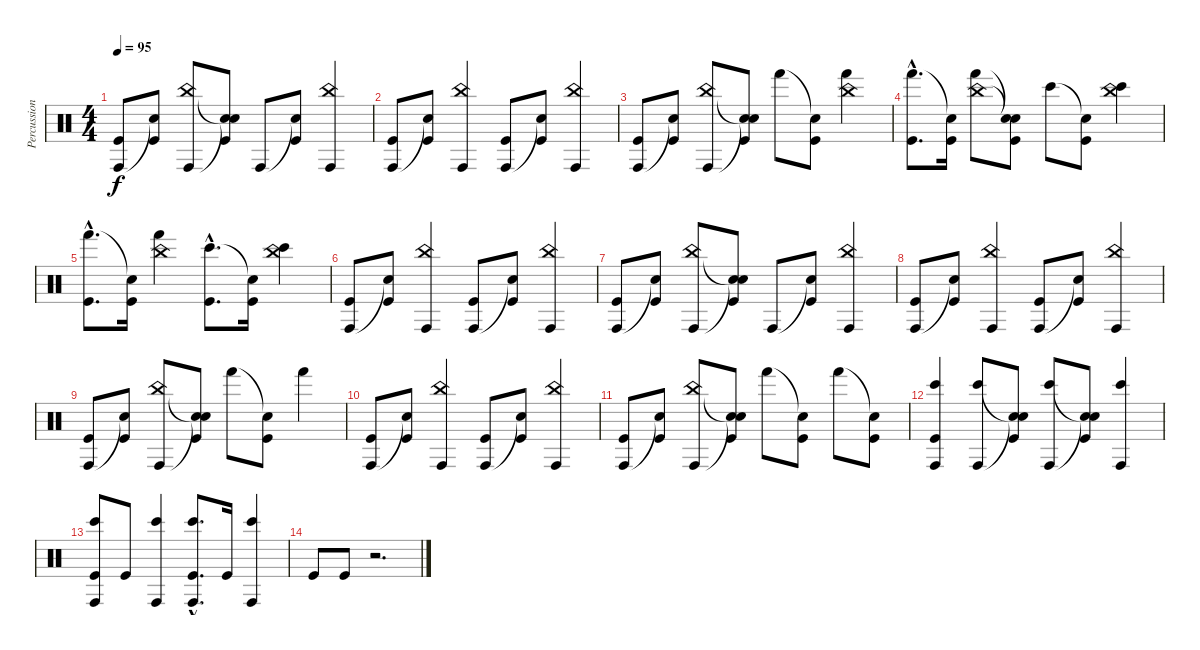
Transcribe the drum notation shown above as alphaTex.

\track ("Percussion" "Percussion") {instrument percussion}
\staff {score}
\articulation defaults
\ts (4 4)
\tempo 95
\clef neutral
\ks c
("Conga high (hit)" "Kick (hit)").8{dy f} ("Snare (hit)"{t} "Kick (hit)").8 ("China (hit)" "Conga high (hit)").8 ("Snare (hit)"{t} "Snare (hit)"{t} "Kick (hit)").8 "Conga high (hit)".8 ("Snare (hit)"{t} "Kick (hit)").8 ("China (hit)" "Conga high (hit)").4 |
("Conga high (hit)" "Kick (hit)").8 ("Snare (hit)"{t} "Kick (hit)").8 ("China (hit)" "Conga high (hit)").4 ("Conga high (hit)" "Kick (hit)").8 ("Snare (hit)"{t} "Kick (hit)").8 ("China (hit)" "Conga high (hit)").4 |
("Conga high (hit)" "Kick (hit)").8 ("Snare (hit)"{t} "Kick (hit)").8 ("China (hit)" "Conga high (hit)").8 ("Snare (hit)"{t} "Snare (hit)"{t} "Kick (hit)").8 "Hand (hit)".8 ("Snare (hit)"{t} "Kick (hit)").8 ("China (hit)" "Hand (hit)").4 |
("Hand (hit)"{hac} "Kick (hit)"{hac}).8{d} ("Snare (hit)"{t} "Kick (hit)").16 ("China (hit)" "Hand (hit)").8 ("Snare (hit)"{t} "Snare (hit)"{t} "Kick (hit)").8 "Bongo High (hit)".8 ("Snare (hit)"{t} "Kick (hit)").8 ("China (hit)" "Bongo High (hit)").4 |
("Hand (hit)"{hac} "Kick (hit)"{hac}).8{d} ("Snare (hit)"{t} "Kick (hit)").16 ("China (hit)" "Hand (hit)").4 ("Bongo High (hit)"{hac} "Kick (hit)"{hac}).8{d} ("Snare (hit)"{t} "Kick (hit)").16 ("China (hit)" "Bongo High (hit)").4 |
("Conga high (hit)" "Kick (hit)").8 ("Snare (hit)"{t} "Kick (hit)").8 ("China (hit)" "Conga high (hit)").4 ("Conga high (hit)" "Kick (hit)").8 ("Snare (hit)"{t} "Kick (hit)").8 ("China (hit)" "Conga high (hit)").4 |
("Conga high (hit)" "Kick (hit)").8 ("Snare (hit)"{t} "Kick (hit)").8 ("China (hit)" "Conga high (hit)").8 ("Snare (hit)"{t} "Snare (hit)"{t} "Kick (hit)").8 "Conga high (hit)".8 ("Snare (hit)"{t} "Kick (hit)").8 ("China (hit)" "Conga high (hit)").4 |
("Conga high (hit)" "Kick (hit)").8 ("Snare (hit)"{t} "Kick (hit)").8 ("China (hit)" "Conga high (hit)").4 ("Conga high (hit)" "Kick (hit)").8 ("Snare (hit)"{t} "Kick (hit)").8 ("China (hit)" "Conga high (hit)").4 |
("Conga high (hit)" "Kick (hit)").8 ("Snare (hit)"{t} "Kick (hit)").8 ("China (hit)" "Conga high (hit)").8 ("Snare (hit)"{t} "Snare (hit)"{t} "Kick (hit)").8 "Hand (hit)".8 ("Snare (hit)"{t} "Kick (hit)").8 "Hand (hit)".4 |
("Conga high (hit)" "Kick (hit)").8 ("Snare (hit)"{t} "Kick (hit)").8 ("China (hit)" "Conga high (hit)").4 ("Conga high (hit)" "Kick (hit)").8 ("Snare (hit)"{t} "Kick (hit)").8 ("China (hit)" "Conga high (hit)").4 |
("Conga high (hit)" "Kick (hit)").8 ("Snare (hit)"{t} "Kick (hit)").8 ("China (hit)" "Conga high (hit)").8 ("Snare (hit)"{t} "Snare (hit)"{t} "Kick (hit)").8 "Hand (hit)".8 ("Snare (hit)"{t} "Kick (hit)").8 "Hand (hit)".8 ("Snare (hit)"{t} "Kick (hit)").8 |
("Bongo High (hit)" "Conga high (hit)" "Kick (hit)").4 ("Bongo High (hit)" "Conga high (hit)").8 ("Snare (hit)"{t} "Snare (hit)"{t} "Kick (hit)").8 ("Bongo High (hit)" "Conga high (hit)").8 ("Snare (hit)"{t} "Snare (hit)"{t} "Kick (hit)").8 ("Bongo High (hit)" "Conga high (hit)").4 |
("Bongo High (hit)" "Conga high (hit)" "Kick (hit)").8 "Kick (hit)".8 ("Bongo High (hit)" "Conga high (hit)").4 ("Bongo High (hit)"{hac} "Conga high (hit)"{hac} "Kick (hit)"{hac}).8{d} "Kick (hit)".16 ("Bongo High (hit)" "Conga high (hit)").4 |
"Kick (hit)".8 "Kick (hit)".8 r.2{d}
